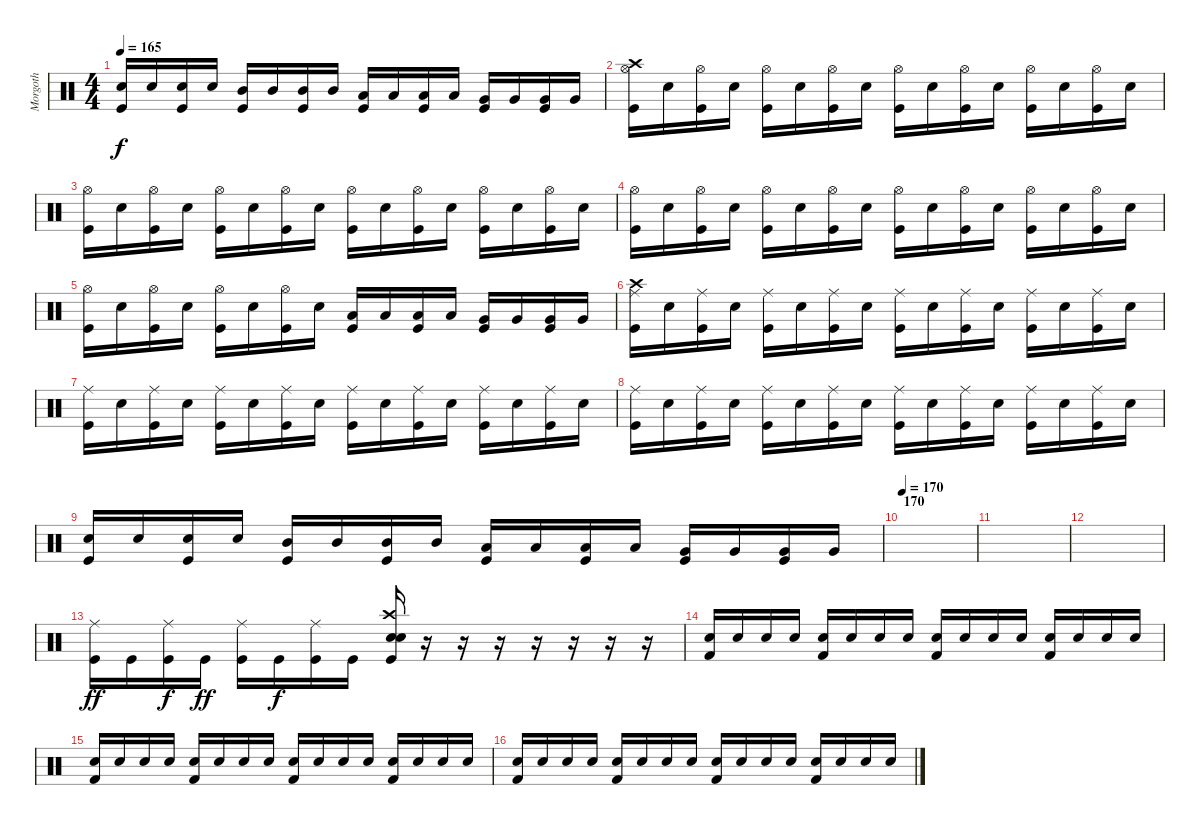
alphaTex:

\track ("Morgoth" "Morgoth") {instrument percussion}
\staff {score}
\articulation defaults
\ts (4 4)
\tempo 165
\clef neutral
\ks c
("Kick (hit)" "Snare (hit) 2").16{dy f} "Snare (hit) 2".16 ("Kick (hit)" "Snare (hit) 2").16 "Snare (hit) 2".16 ("Kick (hit)" "Mid Tom (hit)").16 "Mid Tom (hit)".16 ("Kick (hit)" "Mid Tom (hit)").16 "Mid Tom (hit)".16 ("Kick (hit)" "Low Tom (hit)").16 "Low Tom (hit)".16 ("Kick (hit)" "Low Tom (hit)").16 "Low Tom (hit)".16 ("Kick (hit)" "Very Low Tom (hit)").16 "Very Low Tom (hit)".16 ("Kick (hit)" "Very Low Tom (hit)").16 "Very Low Tom (hit)".16 |
("Kick (hit)" "Crash high (hit)" "Hi-Hat (open)").16 "Snare (hit) 2".16 ("Kick (hit)" "Hi-Hat (open)").16 "Snare (hit) 2".16 ("Kick (hit)" "Hi-Hat (open)").16 "Snare (hit) 2".16 ("Kick (hit)" "Hi-Hat (open)").16 "Snare (hit) 2".16 ("Kick (hit)" "Hi-Hat (open)").16 "Snare (hit) 2".16 ("Kick (hit)" "Hi-Hat (open)").16 "Snare (hit) 2".16 ("Kick (hit)" "Hi-Hat (open)").16 "Snare (hit) 2".16 ("Kick (hit)" "Hi-Hat (open)").16 "Snare (hit) 2".16 |
("Kick (hit)" "Hi-Hat (open)").16 "Snare (hit) 2".16 ("Kick (hit)" "Hi-Hat (open)").16 "Snare (hit) 2".16 ("Kick (hit)" "Hi-Hat (open)").16 "Snare (hit) 2".16 ("Kick (hit)" "Hi-Hat (open)").16 "Snare (hit) 2".16 ("Kick (hit)" "Hi-Hat (open)").16 "Snare (hit) 2".16 ("Kick (hit)" "Hi-Hat (open)").16 "Snare (hit) 2".16 ("Kick (hit)" "Hi-Hat (open)").16 "Snare (hit) 2".16 ("Kick (hit)" "Hi-Hat (open)").16 "Snare (hit) 2".16 |
("Kick (hit)" "Hi-Hat (open)").16 "Snare (hit) 2".16 ("Kick (hit)" "Hi-Hat (open)").16 "Snare (hit) 2".16 ("Kick (hit)" "Hi-Hat (open)").16 "Snare (hit) 2".16 ("Kick (hit)" "Hi-Hat (open)").16 "Snare (hit) 2".16 ("Kick (hit)" "Hi-Hat (open)").16 "Snare (hit) 2".16 ("Kick (hit)" "Hi-Hat (open)").16 "Snare (hit) 2".16 ("Kick (hit)" "Hi-Hat (open)").16 "Snare (hit) 2".16 ("Kick (hit)" "Hi-Hat (open)").16 "Snare (hit) 2".16 |
("Kick (hit)" "Hi-Hat (open)").16 "Snare (hit) 2".16 ("Kick (hit)" "Hi-Hat (open)").16 "Snare (hit) 2".16 ("Kick (hit)" "Hi-Hat (open)").16 "Snare (hit) 2".16 ("Kick (hit)" "Hi-Hat (open)").16 "Snare (hit) 2".16 ("Kick (hit)" "Low Tom (hit)").16 "Low Tom (hit)".16 ("Kick (hit)" "Low Tom (hit)").16 "Low Tom (hit)".16 ("Kick (hit)" "Very Low Tom (hit)").16 "Very Low Tom (hit)".16 ("Kick (hit)" "Very Low Tom (hit)").16 "Very Low Tom (hit)".16 |
("Kick (hit)" "Crash high (hit)" "Ride (middle)").16 "Snare (hit) 2".16 ("Kick (hit)" "Ride (middle)").16 "Snare (hit) 2".16 ("Kick (hit)" "Ride (middle)").16 "Snare (hit) 2".16 ("Kick (hit)" "Ride (middle)").16 "Snare (hit) 2".16 ("Kick (hit)" "Ride (middle)").16 "Snare (hit) 2".16 ("Kick (hit)" "Ride (middle)").16 "Snare (hit) 2".16 ("Kick (hit)" "Ride (middle)").16 "Snare (hit) 2".16 ("Kick (hit)" "Ride (middle)").16 "Snare (hit) 2".16 |
("Kick (hit)" "Ride (middle)").16 "Snare (hit) 2".16 ("Kick (hit)" "Ride (middle)").16 "Snare (hit) 2".16 ("Kick (hit)" "Ride (middle)").16 "Snare (hit) 2".16 ("Kick (hit)" "Ride (middle)").16 "Snare (hit) 2".16 ("Kick (hit)" "Ride (middle)").16 "Snare (hit) 2".16 ("Kick (hit)" "Ride (middle)").16 "Snare (hit) 2".16 ("Kick (hit)" "Ride (middle)").16 "Snare (hit) 2".16 ("Kick (hit)" "Ride (middle)").16 "Snare (hit) 2".16 |
("Kick (hit)" "Ride (middle)").16 "Snare (hit) 2".16 ("Kick (hit)" "Ride (middle)").16 "Snare (hit) 2".16 ("Kick (hit)" "Ride (middle)").16 "Snare (hit) 2".16 ("Kick (hit)" "Ride (middle)").16 "Snare (hit) 2".16 ("Kick (hit)" "Ride (middle)").16 "Snare (hit) 2".16 ("Kick (hit)" "Ride (middle)").16 "Snare (hit) 2".16 ("Kick (hit)" "Ride (middle)").16 "Snare (hit) 2".16 ("Kick (hit)" "Ride (middle)").16 "Snare (hit) 2".16 |
("Kick (hit)" "Snare (hit) 2").16 "Snare (hit) 2".16 ("Kick (hit)" "Snare (hit) 2").16 "Snare (hit) 2".16 ("Kick (hit)" "Mid Tom (hit)").16 "Mid Tom (hit)".16 ("Kick (hit)" "Mid Tom (hit)").16 "Mid Tom (hit)".16 ("Kick (hit)" "Low Tom (hit)").16 "Low Tom (hit)".16 ("Kick (hit)" "Low Tom (hit)").16 "Low Tom (hit)".16 ("Kick (hit)" "Very Low Tom (hit)").16 "Very Low Tom (hit)".16 ("Kick (hit)" "Very Low Tom (hit)").16 "Very Low Tom (hit)".16 |
\section ("" "170")
\tempo 170
|
|
|
("Ride (middle)" "Kick (hit)").16{dy ff} "Kick (hit)".16 ("Ride (middle)" "Kick (hit)").16{dy f} "Kick (hit)".16{dy ff} ("Ride (middle)" "Kick (hit)").16 "Kick (hit)".16{dy f} ("Ride (middle)" "Kick (hit)").16 "Kick (hit)".16 ("Crash high (hit)" "Electric Snare (hit)" "Electric Snare (hit)" "Kick (hit)").16 r.16 r.16 r.16 r.16 r.16 r.16 r.16 |
("Snare (hit) 2" "Kick (hit) 2").16 "Snare (hit) 2".16 "Snare (hit) 2".16 "Snare (hit) 2".16 ("Snare (hit) 2" "Kick (hit) 2").16 "Snare (hit) 2".16 "Snare (hit) 2".16 "Snare (hit) 2".16 ("Snare (hit) 2" "Kick (hit) 2").16 "Snare (hit) 2".16 "Snare (hit) 2".16 "Snare (hit) 2".16 ("Snare (hit) 2" "Kick (hit) 2").16 "Snare (hit) 2".16 "Snare (hit) 2".16 "Snare (hit) 2".16 |
("Snare (hit) 2" "Kick (hit) 2").16 "Snare (hit) 2".16 "Snare (hit) 2".16 "Snare (hit) 2".16 ("Snare (hit) 2" "Kick (hit) 2").16 "Snare (hit) 2".16 "Snare (hit) 2".16 "Snare (hit) 2".16 ("Snare (hit) 2" "Kick (hit) 2").16 "Snare (hit) 2".16 "Snare (hit) 2".16 "Snare (hit) 2".16 ("Snare (hit) 2" "Kick (hit) 2").16 "Snare (hit) 2".16 "Snare (hit) 2".16 "Snare (hit) 2".16 |
("Snare (hit) 2" "Kick (hit) 2").16 "Snare (hit) 2".16 "Snare (hit) 2".16 "Snare (hit) 2".16 ("Snare (hit) 2" "Kick (hit) 2").16 "Snare (hit) 2".16 "Snare (hit) 2".16 "Snare (hit) 2".16 ("Snare (hit) 2" "Kick (hit) 2").16 "Snare (hit) 2".16 "Snare (hit) 2".16 "Snare (hit) 2".16 ("Snare (hit) 2" "Kick (hit) 2").16 "Snare (hit) 2".16 "Snare (hit) 2".16 "Snare (hit) 2".16
